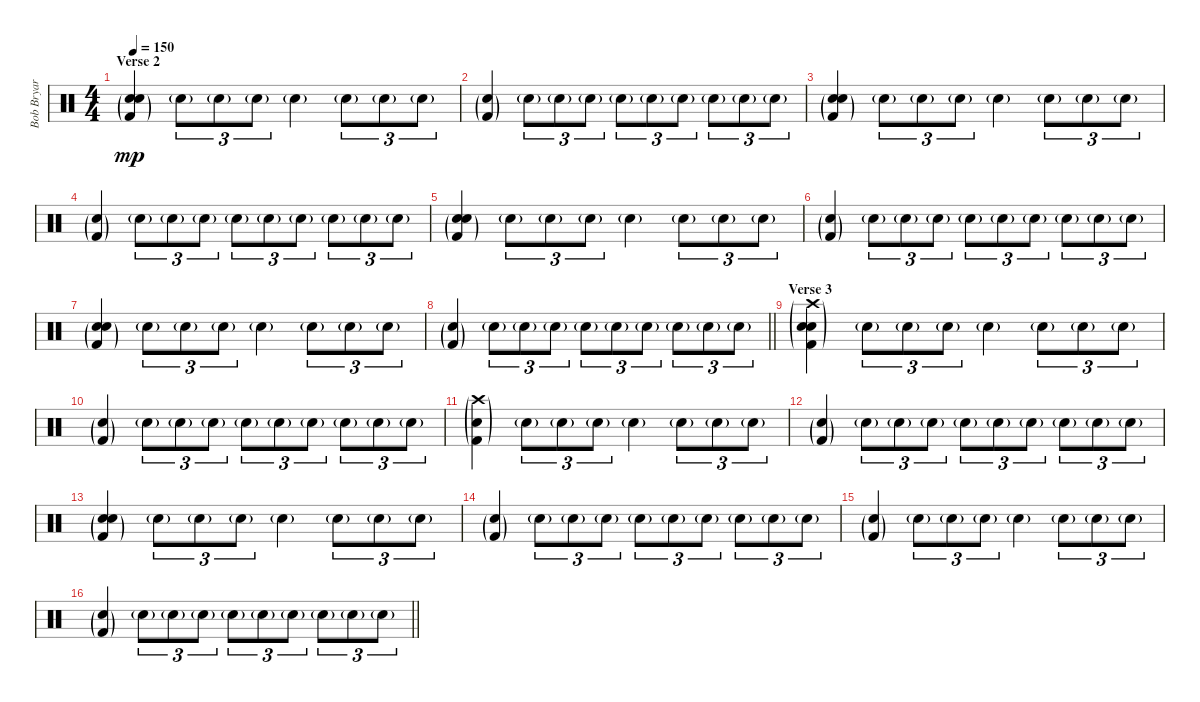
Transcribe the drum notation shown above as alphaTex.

\track ("Bob Bryar (percussion)" "Bob Bryar ") {instrument percussion}
\staff {score}
\articulation defaults
\ts (4 4)
\section ("" "Verse 2")
\tempo 150
\clef neutral
\ks c
("Metronome (bell)"{g} "Electric Snare (hit)"{g} "Kick (hit) 2"{g}).4{dy mp} "Electric Snare (hit)"{g}.8{tu (3 2)} "Electric Snare (hit)"{g}.8{tu (3 2)} "Electric Snare (hit)"{g}.8{tu (3 2)} "Electric Snare (hit)"{g}.4 "Electric Snare (hit)"{g}.8{tu (3 2)} "Electric Snare (hit)"{g}.8{tu (3 2)} "Electric Snare (hit)"{g}.8{tu (3 2)} |
("Electric Snare (hit)"{g} "Kick (hit) 2"{g}).4 "Electric Snare (hit)"{g}.8{tu (3 2)} "Electric Snare (hit)"{g}.8{tu (3 2)} "Electric Snare (hit)"{g}.8{tu (3 2)} "Electric Snare (hit)"{g}.8{tu (3 2)} "Electric Snare (hit)"{g}.8{tu (3 2)} "Electric Snare (hit)"{g}.8{tu (3 2)} "Electric Snare (hit)"{g}.8{tu (3 2)} "Electric Snare (hit)"{g}.8{tu (3 2)} "Electric Snare (hit)"{g}.8{tu (3 2)} |
("Metronome (bell)"{g} "Electric Snare (hit)"{g} "Kick (hit) 2"{g}).4 "Electric Snare (hit)"{g}.8{tu (3 2)} "Electric Snare (hit)"{g}.8{tu (3 2)} "Electric Snare (hit)"{g}.8{tu (3 2)} "Electric Snare (hit)"{g}.4 "Electric Snare (hit)"{g}.8{tu (3 2)} "Electric Snare (hit)"{g}.8{tu (3 2)} "Electric Snare (hit)"{g}.8{tu (3 2)} |
("Electric Snare (hit)"{g} "Kick (hit) 2"{g}).4 "Electric Snare (hit)"{g}.8{tu (3 2)} "Electric Snare (hit)"{g}.8{tu (3 2)} "Electric Snare (hit)"{g}.8{tu (3 2)} "Electric Snare (hit)"{g}.8{tu (3 2)} "Electric Snare (hit)"{g}.8{tu (3 2)} "Electric Snare (hit)"{g}.8{tu (3 2)} "Electric Snare (hit)"{g}.8{tu (3 2)} "Electric Snare (hit)"{g}.8{tu (3 2)} "Electric Snare (hit)"{g}.8{tu (3 2)} |
("Metronome (bell)"{g} "Electric Snare (hit)"{g} "Kick (hit) 2"{g}).4 "Electric Snare (hit)"{g}.8{tu (3 2)} "Electric Snare (hit)"{g}.8{tu (3 2)} "Electric Snare (hit)"{g}.8{tu (3 2)} "Electric Snare (hit)"{g}.4 "Electric Snare (hit)"{g}.8{tu (3 2)} "Electric Snare (hit)"{g}.8{tu (3 2)} "Electric Snare (hit)"{g}.8{tu (3 2)} |
("Electric Snare (hit)"{g} "Kick (hit) 2"{g}).4 "Electric Snare (hit)"{g}.8{tu (3 2)} "Electric Snare (hit)"{g}.8{tu (3 2)} "Electric Snare (hit)"{g}.8{tu (3 2)} "Electric Snare (hit)"{g}.8{tu (3 2)} "Electric Snare (hit)"{g}.8{tu (3 2)} "Electric Snare (hit)"{g}.8{tu (3 2)} "Electric Snare (hit)"{g}.8{tu (3 2)} "Electric Snare (hit)"{g}.8{tu (3 2)} "Electric Snare (hit)"{g}.8{tu (3 2)} |
("Metronome (bell)"{g} "Electric Snare (hit)"{g} "Kick (hit) 2"{g}).4 "Electric Snare (hit)"{g}.8{tu (3 2)} "Electric Snare (hit)"{g}.8{tu (3 2)} "Electric Snare (hit)"{g}.8{tu (3 2)} "Electric Snare (hit)"{g}.4 "Electric Snare (hit)"{g}.8{tu (3 2)} "Electric Snare (hit)"{g}.8{tu (3 2)} "Electric Snare (hit)"{g}.8{tu (3 2)} |
\barLineRight lightlight
("Electric Snare (hit)"{g} "Kick (hit) 2"{g}).4 "Electric Snare (hit)"{g}.8{tu (3 2)} "Electric Snare (hit)"{g}.8{tu (3 2)} "Electric Snare (hit)"{g}.8{tu (3 2)} "Electric Snare (hit)"{g}.8{tu (3 2)} "Electric Snare (hit)"{g}.8{tu (3 2)} "Electric Snare (hit)"{g}.8{tu (3 2)} "Electric Snare (hit)"{g}.8{tu (3 2)} "Electric Snare (hit)"{g}.8{tu (3 2)} "Electric Snare (hit)"{g}.8{tu (3 2)} |
\section ("" "Verse 3")
("Crash high (hit)"{g} "Metronome (bell)"{g} "Electric Snare (hit)"{g} "Kick (hit) 2"{g}).4{volume 13} "Electric Snare (hit)"{g}.8{tu (3 2)} "Electric Snare (hit)"{g}.8{tu (3 2)} "Electric Snare (hit)"{g}.8{tu (3 2)} "Electric Snare (hit)"{g}.4 "Electric Snare (hit)"{g}.8{tu (3 2)} "Electric Snare (hit)"{g}.8{tu (3 2)} "Electric Snare (hit)"{g}.8{tu (3 2)} |
("Electric Snare (hit)"{g} "Kick (hit) 2"{g}).4 "Electric Snare (hit)"{g}.8{tu (3 2)} "Electric Snare (hit)"{g}.8{tu (3 2)} "Electric Snare (hit)"{g}.8{tu (3 2)} "Electric Snare (hit)"{g}.8{tu (3 2)} "Electric Snare (hit)"{g}.8{tu (3 2)} "Electric Snare (hit)"{g}.8{tu (3 2)} "Electric Snare (hit)"{g}.8{tu (3 2)} "Electric Snare (hit)"{g}.8{tu (3 2)} "Electric Snare (hit)"{g}.8{tu (3 2)} |
("Crash high (hit)"{g} "Electric Snare (hit)"{g} "Kick (hit) 2"{g}).4 "Electric Snare (hit)"{g}.8{tu (3 2)} "Electric Snare (hit)"{g}.8{tu (3 2)} "Electric Snare (hit)"{g}.8{tu (3 2)} "Electric Snare (hit)"{g}.4 "Electric Snare (hit)"{g}.8{tu (3 2)} "Electric Snare (hit)"{g}.8{tu (3 2)} "Electric Snare (hit)"{g}.8{tu (3 2)} |
("Electric Snare (hit)"{g} "Kick (hit) 2"{g}).4 "Electric Snare (hit)"{g}.8{tu (3 2)} "Electric Snare (hit)"{g}.8{tu (3 2)} "Electric Snare (hit)"{g}.8{tu (3 2)} "Electric Snare (hit)"{g}.8{tu (3 2)} "Electric Snare (hit)"{g}.8{tu (3 2)} "Electric Snare (hit)"{g}.8{tu (3 2)} "Electric Snare (hit)"{g}.8{tu (3 2)} "Electric Snare (hit)"{g}.8{tu (3 2)} "Electric Snare (hit)"{g}.8{tu (3 2)} |
("Metronome (bell)"{g} "Electric Snare (hit)"{g} "Kick (hit) 2"{g}).4 "Electric Snare (hit)"{g}.8{tu (3 2)} "Electric Snare (hit)"{g}.8{tu (3 2)} "Electric Snare (hit)"{g}.8{tu (3 2)} "Electric Snare (hit)"{g}.4 "Electric Snare (hit)"{g}.8{tu (3 2)} "Electric Snare (hit)"{g}.8{tu (3 2)} "Electric Snare (hit)"{g}.8{tu (3 2)} |
("Electric Snare (hit)"{g} "Kick (hit) 2"{g}).4 "Electric Snare (hit)"{g}.8{tu (3 2)} "Electric Snare (hit)"{g}.8{tu (3 2)} "Electric Snare (hit)"{g}.8{tu (3 2)} "Electric Snare (hit)"{g}.8{tu (3 2)} "Electric Snare (hit)"{g}.8{tu (3 2)} "Electric Snare (hit)"{g}.8{tu (3 2)} "Electric Snare (hit)"{g}.8{tu (3 2)} "Electric Snare (hit)"{g}.8{tu (3 2)} "Electric Snare (hit)"{g}.8{tu (3 2)} |
("Electric Snare (hit)"{g} "Kick (hit) 2"{g}).4 "Electric Snare (hit)"{g}.8{tu (3 2)} "Electric Snare (hit)"{g}.8{tu (3 2)} "Electric Snare (hit)"{g}.8{tu (3 2)} "Electric Snare (hit)"{g}.4 "Electric Snare (hit)"{g}.8{tu (3 2)} "Electric Snare (hit)"{g}.8{tu (3 2)} "Electric Snare (hit)"{g}.8{tu (3 2)} |
\barLineRight lightlight
("Electric Snare (hit)"{g} "Kick (hit) 2"{g}).4 "Electric Snare (hit)"{g}.8{tu (3 2)} "Electric Snare (hit)"{g}.8{tu (3 2)} "Electric Snare (hit)"{g}.8{tu (3 2)} "Electric Snare (hit)"{g}.8{tu (3 2)} "Electric Snare (hit)"{g}.8{tu (3 2)} "Electric Snare (hit)"{g}.8{tu (3 2)} "Electric Snare (hit)"{g}.8{tu (3 2)} "Electric Snare (hit)"{g}.8{tu (3 2)} "Electric Snare (hit)"{g}.8{tu (3 2)}
